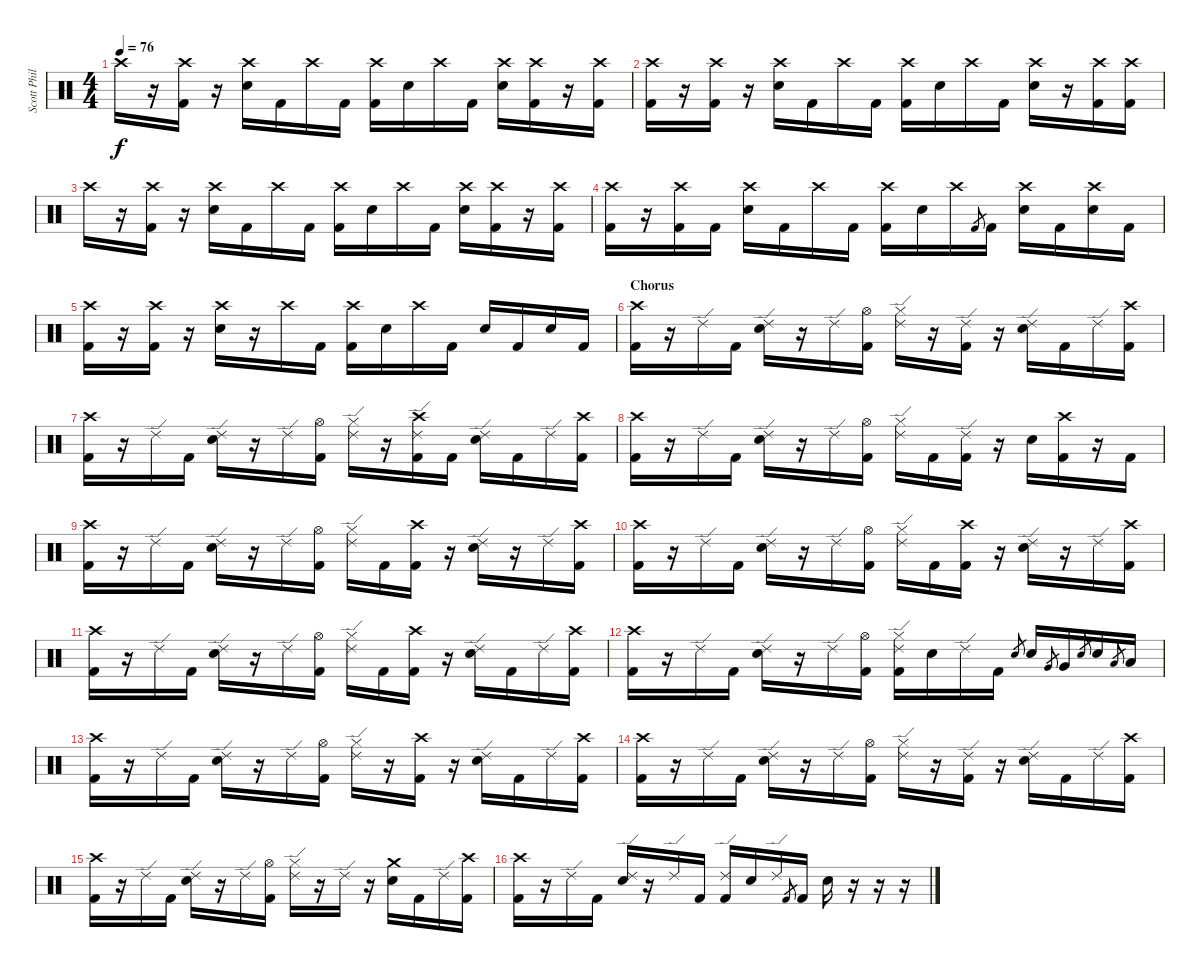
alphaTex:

\track ("Scott Phillips - Drums" "Scott Phil") {instrument percussion}
\staff {score}
\articulation defaults
\ts (4 4)
\tempo 76
\clef neutral
\ks c "Crash high (hit)".16{dy f}
r.16 ("Crash high (hit)" "Kick (hit) 2").16 r.16 ("Crash high (hit)" "Snare (hit) 2").16 "Kick (hit) 2".16 "Crash high (hit)".16 "Kick (hit) 2".16 ("Crash high (hit)" "Kick (hit) 2").16 "Snare (hit) 2".16 "Crash high (hit)".16 "Kick (hit) 2".16 ("Crash high (hit)" "Snare (hit) 2").16 ("Crash high (hit)" "Kick (hit) 2").16 r.16 ("Crash high (hit)" "Kick (hit) 2").16 |
("Crash high (hit)" "Kick (hit) 2").16 r.16 ("Crash high (hit)" "Kick (hit) 2").16 r.16 ("Crash high (hit)" "Snare (hit) 2").16 "Kick (hit) 2".16 "Crash high (hit)".16 "Kick (hit) 2".16 ("Crash high (hit)" "Kick (hit) 2").16 "Snare (hit) 2".16 "Crash high (hit)".16 "Kick (hit) 2".16 ("Crash high (hit)" "Snare (hit) 2").16 r.16 ("Crash high (hit)" "Kick (hit) 2").16 ("Crash high (hit)" "Kick (hit) 2").16 |
"Crash high (hit)".16 r.16 ("Crash high (hit)" "Kick (hit) 2").16 r.16 ("Crash high (hit)" "Snare (hit) 2").16 "Kick (hit) 2".16 "Crash high (hit)".16 "Kick (hit) 2".16 ("Crash high (hit)" "Kick (hit) 2").16 "Snare (hit) 2".16 "Crash high (hit)".16 "Kick (hit) 2".16 ("Crash high (hit)" "Snare (hit) 2").16 ("Crash high (hit)" "Kick (hit) 2").16 r.16 ("Crash high (hit)" "Kick (hit) 2").16 |
("Crash high (hit)" "Kick (hit) 2").16 r.16 ("Crash high (hit)" "Kick (hit) 2").16 "Kick (hit) 2".16 ("Crash high (hit)" "Snare (hit) 2").16 "Kick (hit) 2".16 "Crash high (hit)".16 "Kick (hit) 2".16 ("Crash high (hit)" "Kick (hit) 2").16 "Snare (hit) 2".16 "Crash high (hit)".16 "Kick (hit) 2".8{gr} "Kick (hit) 2".16 ("Crash high (hit)" "Snare (hit) 2").16 "Kick (hit) 2".16 ("Crash high (hit)" "Snare (hit) 2").16 "Kick (hit) 2".16 |
("Crash high (hit)" "Kick (hit) 2").16 r.16 ("Crash high (hit)" "Kick (hit) 2").16 r.16 ("Crash high (hit)" "Snare (hit) 2").16 r.16 "Crash high (hit)".16 "Kick (hit) 2".16 ("Crash high (hit)" "Kick (hit) 2").16 "Snare (hit) 2".16 "Crash high (hit)".16 "Kick (hit) 2".16 "Snare (hit) 2".16 "Kick (hit) 2".16 "Snare (hit) 2".16 "Kick (hit) 2".16 |
\section ("" "Chorus")
("Crash high (hit)" "Kick (hit) 2").16 r.16 "Ride (edge) 2".16 "Kick (hit) 2".16 ("Ride (edge) 2" "Snare (hit) 2").16 r.16 "Ride (edge) 2".16 ("Hi-Hat (open)" "Kick (hit) 2").16 ("Ride (edge) 2" "Hi-Hat (closed)").16 r.16 ("Ride (edge) 2" "Kick (hit) 2").16 r.16 ("Ride (edge) 2" "Snare (hit) 2").16 "Kick (hit) 2".16 "Ride (edge) 2".16 ("Crash high (hit)" "Kick (hit) 2").16 |
("Crash high (hit)" "Kick (hit) 2").16 r.16 "Ride (edge) 2".16 "Kick (hit) 2".16 ("Ride (edge) 2" "Snare (hit) 2").16 r.16 "Ride (edge) 2".16 ("Hi-Hat (open)" "Kick (hit) 2").16 ("Ride (edge) 2" "Hi-Hat (closed)").16 r.16 ("Crash high (hit)" "Ride (edge) 2" "Kick (hit) 2").16 "Kick (hit) 2".16 ("Ride (edge) 2" "Snare (hit) 2").16 "Kick (hit) 2".16 "Ride (edge) 2".16 ("Crash high (hit)" "Kick (hit) 2").16 |
("Crash high (hit)" "Kick (hit) 2").16 r.16 "Ride (edge) 2".16 "Kick (hit) 2".16 ("Ride (edge) 2" "Snare (hit) 2").16 r.16 "Ride (edge) 2".16 ("Hi-Hat (open)" "Kick (hit) 2").16 ("Ride (edge) 2" "Hi-Hat (closed)").16 "Kick (hit) 2".16 ("Ride (edge) 2" "Kick (hit) 2").16 r.16 "Snare (hit) 2".16 ("Crash high (hit)" "Kick (hit) 2").16 r.16 "Kick (hit) 2".16 |
("Crash high (hit)" "Kick (hit) 2").16 r.16 "Ride (edge) 2".16 "Kick (hit) 2".16 ("Ride (edge) 2" "Snare (hit) 2").16 r.16 "Ride (edge) 2".16 ("Hi-Hat (open)" "Kick (hit) 2").16 ("Ride (edge) 2" "Hi-Hat (closed)").16 "Kick (hit) 2".16 ("Crash high (hit)" "Kick (hit) 2").16 r.16 ("Ride (edge) 2" "Snare (hit) 2").16 r.16 "Ride (edge) 2".16 ("Crash high (hit)" "Kick (hit) 2").16 |
("Crash high (hit)" "Kick (hit) 2").16 r.16 "Ride (edge) 2".16 "Kick (hit) 2".16 ("Ride (edge) 2" "Snare (hit) 2").16 r.16 "Ride (edge) 2".16 ("Hi-Hat (open)" "Kick (hit) 2").16 ("Ride (edge) 2" "Hi-Hat (closed)").16 "Kick (hit) 2".16 ("Crash high (hit)" "Kick (hit) 2").16 r.16 ("Ride (edge) 2" "Snare (hit) 2").16 r.16 "Ride (edge) 2".16 ("Crash high (hit)" "Kick (hit) 2").16 |
("Crash high (hit)" "Kick (hit) 2").16 r.16 "Ride (edge) 2".16 "Kick (hit) 2".16 ("Ride (edge) 2" "Snare (hit) 2").16 r.16 "Ride (edge) 2".16 ("Hi-Hat (open)" "Kick (hit) 2").16 ("Ride (edge) 2" "Hi-Hat (closed)").16 "Kick (hit) 2".16 ("Crash high (hit)" "Kick (hit) 2").16 r.16 ("Ride (edge) 2" "Snare (hit) 2").16 "Kick (hit) 2".16 "Ride (edge) 2".16 ("Crash high (hit)" "Kick (hit) 2").16 |
("Crash high (hit)" "Kick (hit) 2").16 r.16 "Ride (edge) 2".16 "Kick (hit) 2".16 ("Ride (edge) 2" "Snare (hit) 2").16 r.16 "Ride (edge) 2".16 ("Hi-Hat (open)" "Kick (hit) 2").16 ("Ride (edge) 2" "Hi-Hat (closed)" "Kick (hit) 2").16 "Snare (hit) 2".16 "Ride (edge) 2".16 "Kick (hit) 2".16 "Snare (hit) 2".8{gr} "Snare (hit) 2".16 "Very Low Tom (hit)".8{gr} "Very Low Tom (hit)".16 "Snare (hit) 2".8{gr} "Snare (hit) 2".16 "Low Tom (hit)".8{gr} "Low Tom (hit)".16 |
("Crash high (hit)" "Kick (hit) 2").16 r.16 "Ride (edge) 2".16 "Kick (hit) 2".16 ("Ride (edge) 2" "Snare (hit) 2").16 r.16 "Ride (edge) 2".16 ("Hi-Hat (open)" "Kick (hit) 2").16 ("Ride (edge) 2" "Hi-Hat (closed)").16 r.16 ("Crash high (hit)" "Kick (hit) 2").16 r.16 ("Ride (edge) 2" "Snare (hit) 2").16 "Kick (hit) 2".16 "Ride (edge) 2".16 ("Crash high (hit)" "Kick (hit) 2").16 |
("Crash high (hit)" "Kick (hit) 2").16 r.16 "Ride (edge) 2".16 "Kick (hit) 2".16 ("Ride (edge) 2" "Snare (hit) 2").16 r.16 "Ride (edge) 2".16 ("Hi-Hat (open)" "Kick (hit) 2").16 ("Ride (edge) 2" "Hi-Hat (closed)").16 r.16 ("Ride (edge) 2" "Kick (hit) 2").16 r.16 ("Ride (edge) 2" "Snare (hit) 2").16 "Kick (hit) 2".16 "Ride (edge) 2".16 ("Crash high (hit)" "Kick (hit) 2").16 |
("Crash high (hit)" "Kick (hit) 2").16 r.16 "Ride (edge) 2".16 "Kick (hit) 2".16 ("Ride (edge) 2" "Snare (hit) 2").16 r.16 "Ride (edge) 2".16 ("Hi-Hat (open)" "Kick (hit) 2").16 ("Ride (edge) 2" "Hi-Hat (closed)").16 r.16 "Ride (edge) 2".16 r.16 ("Crash medium (hit)" "Snare (hit) 2").16 "Kick (hit) 2".16 "Ride (edge) 2".16 ("Crash high (hit)" "Kick (hit) 2").16 |
("Crash high (hit)" "Kick (hit) 2").16 r.16 "Ride (edge) 2".16 "Kick (hit) 2".16 ("Ride (edge) 2" "Snare (hit) 2").16 r.16 "Ride (edge) 2".16 "Kick (hit) 2".16 ("Ride (edge) 2" "Kick (hit) 2").16 "Snare (hit) 2".16 "Ride (edge) 2".16 "Kick (hit) 2".8{gr} "Kick (hit) 2".16 "Snare (hit) 2".16 r.16 r.16 r.16
